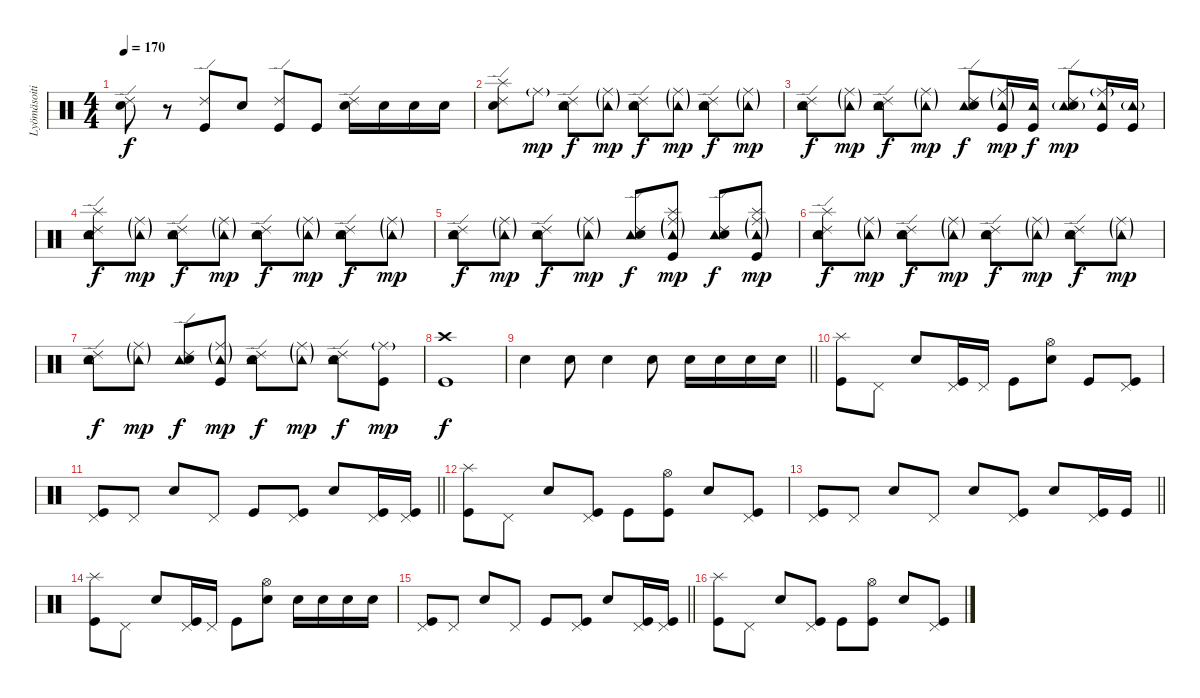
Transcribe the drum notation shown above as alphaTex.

\track ("Lyömäsoitin" "Lyömäsoiti") {instrument percussion}
\staff {score}
\articulation defaults
\ts (4 4)
\tempo 170
\clef neutral
\ks c
("Ride (edge) 2" "Snare (hit) 2").8{dy f} r.8 ("Ride (edge) 2" "Kick (hit)").8 "Snare (hit) 2".8 ("Ride (edge) 2" "Kick (hit)").8 "Kick (hit)".8 ("Ride (edge) 2" "Snare (hit) 2").16 "Snare (hit) 2".16 "Snare (hit) 2".16 "Snare (hit) 2".16 |
("Splash (hit)" "Ride (edge) 2" "Snare (hit) 2").8 "Ride (middle)"{g}.8{dy mp} ("Tambourine (hit)" "Ride (edge) 2" "Snare (hit) 2").8{dy f} ("Tambourine (hit)"{g} "Ride (middle)"{g}).8{dy mp} ("Tambourine (hit)" "Ride (edge) 2" "Snare (hit) 2").8{dy f} ("Tambourine (hit)"{g} "Ride (middle)"{g}).8{dy mp} ("Tambourine (hit)" "Ride (edge) 2" "Snare (hit) 2").8{dy f} ("Tambourine (hit)"{g} "Ride (middle)"{g}).8{dy mp} |
("Tambourine (hit)" "Ride (edge) 2" "Snare (hit) 2").8{dy f} ("Tambourine (hit)"{g} "Ride (middle)"{g}).8{dy mp} ("Tambourine (hit)" "Ride (edge) 2" "Snare (hit) 2").8{dy f} ("Tambourine (hit)"{g} "Ride (middle)"{g}).8{dy mp} ("Tambourine (hit)" "Ride (edge) 2" "Snare (hit) 2").8{dy f} ("Tambourine (hit)"{g} "Ride (middle)"{g} "Kick (hit)").16{dy mp} ("Tambourine (hit)" "Kick (hit)").16{dy f} ("Tambourine (hit)"{g} "Ride (edge) 2" "Snare (hit) 2").8{dy mp} ("Tambourine (hit)" "Ride (middle)"{g} "Kick (hit)").16 ("Tambourine (hit)"{g} "Kick (hit)").16 |
("Tambourine (hit)" "Splash (hit)" "Ride (edge) 2" "Snare (hit) 2").8{dy f} ("Tambourine (hit)"{g} "Ride (middle)"{g}).8{dy mp} ("Tambourine (hit)" "Ride (edge) 2" "Snare (hit) 2").8{dy f} ("Tambourine (hit)"{g} "Ride (middle)"{g}).8{dy mp} ("Tambourine (hit)" "Ride (edge) 2" "Snare (hit) 2").8{dy f} ("Tambourine (hit)"{g} "Ride (middle)"{g}).8{dy mp} ("Tambourine (hit)" "Ride (edge) 2" "Snare (hit) 2").8{dy f} ("Tambourine (hit)"{g} "Ride (middle)"{g}).8{dy mp} |
("Tambourine (hit)" "Ride (edge) 2" "Snare (hit) 2").8{dy f} ("Tambourine (hit)"{g} "Ride (middle)"{g}).8{dy mp} ("Tambourine (hit)" "Ride (edge) 2" "Snare (hit) 2").8{dy f} ("Tambourine (hit)"{g} "Ride (middle)"{g}).8{dy mp} ("Tambourine (hit)" "Ride (edge) 2" "Snare (hit) 2").8{dy f} ("Tambourine (hit)"{g} "Splash (hit)" "Ride (middle)"{g} "Kick (hit)").8{dy mp} ("Tambourine (hit)" "Ride (edge) 2" "Snare (hit) 2").8{dy f} ("Tambourine (hit)"{g} "Splash (hit)" "Ride (middle)"{g} "Kick (hit)").8{dy mp} |
("Tambourine (hit)" "Splash (hit)" "Ride (edge) 2" "Snare (hit) 2").8{dy f} ("Tambourine (hit)"{g} "Ride (middle)"{g}).8{dy mp} ("Tambourine (hit)" "Ride (edge) 2" "Snare (hit) 2").8{dy f} ("Tambourine (hit)"{g} "Ride (middle)"{g}).8{dy mp} ("Tambourine (hit)" "Ride (edge) 2" "Snare (hit) 2").8{dy f} ("Tambourine (hit)"{g} "Ride (middle)"{g}).8{dy mp} ("Tambourine (hit)" "Ride (edge) 2" "Snare (hit) 2").8{dy f} ("Tambourine (hit)"{g} "Ride (middle)"{g}).8{dy mp} |
("Tambourine (hit)" "Ride (edge) 2" "Snare (hit) 2").8{dy f} ("Tambourine (hit)"{g} "Ride (middle)"{g}).8{dy mp} ("Tambourine (hit)" "Ride (edge) 2" "Snare (hit) 2").8{dy f} ("Tambourine (hit)"{g} "Ride (middle)"{g} "Kick (hit)").8{dy mp} ("Tambourine (hit)" "Ride (edge) 2" "Snare (hit) 2").8{dy f} ("Tambourine (hit)"{g} "Ride (middle)"{g}).8{dy mp} ("Tambourine (hit)" "Ride (edge) 2" "Snare (hit) 2").8{dy f} ("Ride (middle)"{g} "Kick (hit)").8{dy mp} |
("Crash high (hit)" "Kick (hit)").1{dy f} |
\barLineRight lightlight "Snare (hit) 2".4 "Snare (hit) 2".8 "Snare (hit) 2".4 "Snare (hit) 2".8 "Snare (hit) 2".16 "Snare (hit) 2".16 "Snare (hit) 2".16 "Snare (hit) 2".16
|
\section ("" "")
("Splash (hit)" "Kick (hit)").8 "Pedal Hi-Hat (hit)".8 "Snare (hit) 2".8 ("Pedal Hi-Hat (hit)" "Kick (hit)").16 "Pedal Hi-Hat (hit)".16 "Kick (hit)".8 ("Snare (hit) 2" "Hi-Hat (open)").8 "Kick (hit)".8 ("Pedal Hi-Hat (hit)" "Kick (hit)").8 |
\barLineRight lightlight
("Pedal Hi-Hat (hit)" "Kick (hit)").8 "Pedal Hi-Hat (hit)".8 "Snare (hit) 2".8 "Pedal Hi-Hat (hit)".8 "Kick (hit)".8 ("Pedal Hi-Hat (hit)" "Kick (hit)").8 "Snare (hit) 2".8 ("Pedal Hi-Hat (hit)" "Kick (hit)").16 ("Pedal Hi-Hat (hit)" "Kick (hit)").16 |
("Splash (hit)" "Kick (hit)").8 "Pedal Hi-Hat (hit)".8 "Snare (hit) 2".8 ("Pedal Hi-Hat (hit)" "Kick (hit)").8 "Kick (hit)".8 ("Hi-Hat (open)" "Kick (hit)").8 "Snare (hit) 2".8 ("Pedal Hi-Hat (hit)" "Kick (hit)").8 |
\barLineRight lightlight
("Pedal Hi-Hat (hit)" "Kick (hit)").8 "Pedal Hi-Hat (hit)".8 "Snare (hit) 2".8 "Pedal Hi-Hat (hit)".8 "Snare (hit) 2".8 ("Pedal Hi-Hat (hit)" "Kick (hit)").8 "Snare (hit) 2".8 ("Pedal Hi-Hat (hit)" "Kick (hit)").16 "Kick (hit)".16 |
\section ("" "")
("Splash (hit)" "Kick (hit)").8 "Pedal Hi-Hat (hit)".8 "Snare (hit) 2".8 ("Pedal Hi-Hat (hit)" "Kick (hit)").16 "Pedal Hi-Hat (hit)".16 "Kick (hit)".8 ("Snare (hit) 2" "Hi-Hat (open)").8 "Snare (hit) 2".16 "Snare (hit) 2".16 "Snare (hit) 2".16 "Snare (hit) 2".16 |
\barLineRight lightlight
("Pedal Hi-Hat (hit)" "Kick (hit)").8 "Pedal Hi-Hat (hit)".8 "Snare (hit) 2".8 "Pedal Hi-Hat (hit)".8 "Kick (hit)".8 ("Pedal Hi-Hat (hit)" "Kick (hit)").8 "Snare (hit) 2".8 ("Pedal Hi-Hat (hit)" "Kick (hit)").16 ("Pedal Hi-Hat (hit)" "Kick (hit)").16 |
("Splash (hit)" "Kick (hit)").8 "Pedal Hi-Hat (hit)".8 "Snare (hit) 2".8 ("Pedal Hi-Hat (hit)" "Kick (hit)").8 "Kick (hit)".8 ("Hi-Hat (open)" "Kick (hit)").8 "Snare (hit) 2".8 ("Pedal Hi-Hat (hit)" "Kick (hit)").8
